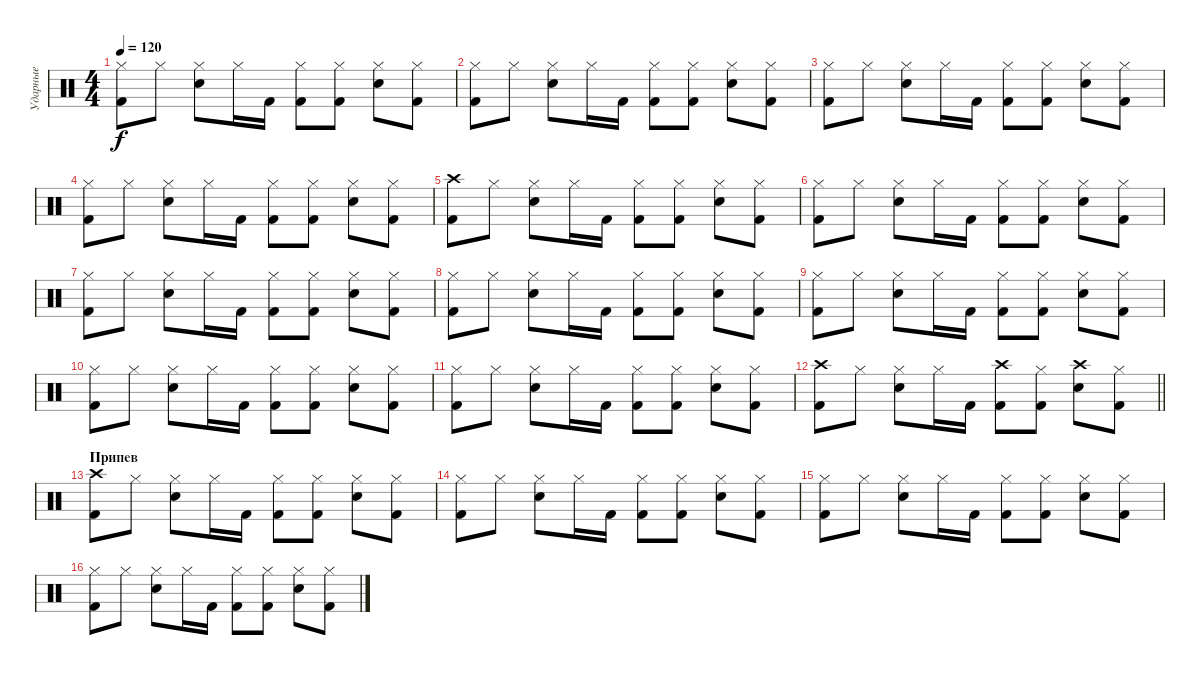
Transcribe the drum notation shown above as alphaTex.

\track ("Ударные" "Ударные") {instrument percussion}
\staff {score}
\articulation defaults
\ts (4 4)
\tempo 120
\clef neutral
\ks c
("Hi-Hat (closed)" "Kick (hit) 2").8{dy f} "Hi-Hat (closed)".8 ("Hi-Hat (closed)" "Snare (hit) 2").8 "Hi-Hat (closed)".16 "Kick (hit) 2".16 ("Hi-Hat (closed)" "Kick (hit) 2").8 ("Hi-Hat (closed)" "Kick (hit) 2").8 ("Hi-Hat (closed)" "Snare (hit) 2").8 ("Hi-Hat (closed)" "Kick (hit) 2").8 |
("Hi-Hat (closed)" "Kick (hit) 2").8 "Hi-Hat (closed)".8 ("Hi-Hat (closed)" "Snare (hit) 2").8 "Hi-Hat (closed)".16 "Kick (hit) 2".16 ("Hi-Hat (closed)" "Kick (hit) 2").8 ("Hi-Hat (closed)" "Kick (hit) 2").8 ("Hi-Hat (closed)" "Snare (hit) 2").8 ("Hi-Hat (closed)" "Kick (hit) 2").8 |
("Hi-Hat (closed)" "Kick (hit) 2").8 "Hi-Hat (closed)".8 ("Hi-Hat (closed)" "Snare (hit) 2").8 "Hi-Hat (closed)".16 "Kick (hit) 2".16 ("Hi-Hat (closed)" "Kick (hit) 2").8 ("Hi-Hat (closed)" "Kick (hit) 2").8 ("Hi-Hat (closed)" "Snare (hit) 2").8 ("Hi-Hat (closed)" "Kick (hit) 2").8 |
("Hi-Hat (closed)" "Kick (hit) 2").8 "Hi-Hat (closed)".8 ("Hi-Hat (closed)" "Snare (hit) 2").8 "Hi-Hat (closed)".16 "Kick (hit) 2".16 ("Hi-Hat (closed)" "Kick (hit) 2").8 ("Hi-Hat (closed)" "Kick (hit) 2").8 ("Hi-Hat (closed)" "Snare (hit) 2").8 ("Hi-Hat (closed)" "Kick (hit) 2").8 |
("Crash high (hit)" "Kick (hit) 2").8 "Hi-Hat (closed)".8 ("Hi-Hat (closed)" "Snare (hit) 2").8 "Hi-Hat (closed)".16 "Kick (hit) 2".16 ("Hi-Hat (closed)" "Kick (hit) 2").8 ("Hi-Hat (closed)" "Kick (hit) 2").8 ("Hi-Hat (closed)" "Snare (hit) 2").8 ("Hi-Hat (closed)" "Kick (hit) 2").8 |
("Hi-Hat (closed)" "Kick (hit) 2").8 "Hi-Hat (closed)".8 ("Hi-Hat (closed)" "Snare (hit) 2").8 "Hi-Hat (closed)".16 "Kick (hit) 2".16 ("Hi-Hat (closed)" "Kick (hit) 2").8 ("Hi-Hat (closed)" "Kick (hit) 2").8 ("Hi-Hat (closed)" "Snare (hit) 2").8 ("Hi-Hat (closed)" "Kick (hit) 2").8 |
("Hi-Hat (closed)" "Kick (hit) 2").8 "Hi-Hat (closed)".8 ("Hi-Hat (closed)" "Snare (hit) 2").8 "Hi-Hat (closed)".16 "Kick (hit) 2".16 ("Hi-Hat (closed)" "Kick (hit) 2").8 ("Hi-Hat (closed)" "Kick (hit) 2").8 ("Hi-Hat (closed)" "Snare (hit) 2").8 ("Hi-Hat (closed)" "Kick (hit) 2").8 |
("Hi-Hat (closed)" "Kick (hit) 2").8 "Hi-Hat (closed)".8 ("Hi-Hat (closed)" "Snare (hit) 2").8 "Hi-Hat (closed)".16 "Kick (hit) 2".16 ("Hi-Hat (closed)" "Kick (hit) 2").8 ("Hi-Hat (closed)" "Kick (hit) 2").8 ("Hi-Hat (closed)" "Snare (hit) 2").8 ("Hi-Hat (closed)" "Kick (hit) 2").8 |
("Hi-Hat (closed)" "Kick (hit) 2").8 "Hi-Hat (closed)".8 ("Hi-Hat (closed)" "Snare (hit) 2").8 "Hi-Hat (closed)".16 "Kick (hit) 2".16 ("Hi-Hat (closed)" "Kick (hit) 2").8 ("Hi-Hat (closed)" "Kick (hit) 2").8 ("Hi-Hat (closed)" "Snare (hit) 2").8 ("Hi-Hat (closed)" "Kick (hit) 2").8 |
("Hi-Hat (closed)" "Kick (hit) 2").8 "Hi-Hat (closed)".8 ("Hi-Hat (closed)" "Snare (hit) 2").8 "Hi-Hat (closed)".16 "Kick (hit) 2".16 ("Hi-Hat (closed)" "Kick (hit) 2").8 ("Hi-Hat (closed)" "Kick (hit) 2").8 ("Hi-Hat (closed)" "Snare (hit) 2").8 ("Hi-Hat (closed)" "Kick (hit) 2").8 |
("Hi-Hat (closed)" "Kick (hit) 2").8 "Hi-Hat (closed)".8 ("Hi-Hat (closed)" "Snare (hit) 2").8 "Hi-Hat (closed)".16 "Kick (hit) 2".16 ("Hi-Hat (closed)" "Kick (hit) 2").8 ("Hi-Hat (closed)" "Kick (hit) 2").8 ("Hi-Hat (closed)" "Snare (hit) 2").8 ("Hi-Hat (closed)" "Kick (hit) 2").8 |
\barLineRight lightlight
("Crash high (hit)" "Kick (hit) 2").8 "Hi-Hat (closed)".8 ("Hi-Hat (closed)" "Snare (hit) 2").8 "Hi-Hat (closed)".16 "Kick (hit) 2".16 ("Crash high (hit)" "Kick (hit) 2").8 ("Hi-Hat (closed)" "Kick (hit) 2").8 ("Crash high (hit)" "Snare (hit) 2").8 ("Hi-Hat (closed)" "Kick (hit) 2").8 |
\section ("" "Припев")
("Crash high (hit)" "Kick (hit) 2").8 "Hi-Hat (closed)".8 ("Hi-Hat (closed)" "Snare (hit) 2").8 "Hi-Hat (closed)".16 "Kick (hit) 2".16 ("Hi-Hat (closed)" "Kick (hit) 2").8 ("Hi-Hat (closed)" "Kick (hit) 2").8 ("Hi-Hat (closed)" "Snare (hit) 2").8 ("Hi-Hat (closed)" "Kick (hit) 2").8 |
("Hi-Hat (closed)" "Kick (hit) 2").8 "Hi-Hat (closed)".8 ("Hi-Hat (closed)" "Snare (hit) 2").8 "Hi-Hat (closed)".16 "Kick (hit) 2".16 ("Hi-Hat (closed)" "Kick (hit) 2").8 ("Hi-Hat (closed)" "Kick (hit) 2").8 ("Hi-Hat (closed)" "Snare (hit) 2").8 ("Hi-Hat (closed)" "Kick (hit) 2").8 |
("Hi-Hat (closed)" "Kick (hit) 2").8 "Hi-Hat (closed)".8 ("Hi-Hat (closed)" "Snare (hit) 2").8 "Hi-Hat (closed)".16 "Kick (hit) 2".16 ("Hi-Hat (closed)" "Kick (hit) 2").8 ("Hi-Hat (closed)" "Kick (hit) 2").8 ("Hi-Hat (closed)" "Snare (hit) 2").8 ("Hi-Hat (closed)" "Kick (hit) 2").8 |
("Hi-Hat (closed)" "Kick (hit) 2").8 "Hi-Hat (closed)".8 ("Hi-Hat (closed)" "Snare (hit) 2").8 "Hi-Hat (closed)".16 "Kick (hit) 2".16 ("Hi-Hat (closed)" "Kick (hit) 2").8 ("Hi-Hat (closed)" "Kick (hit) 2").8 ("Hi-Hat (closed)" "Snare (hit) 2").8 ("Hi-Hat (closed)" "Kick (hit) 2").8
